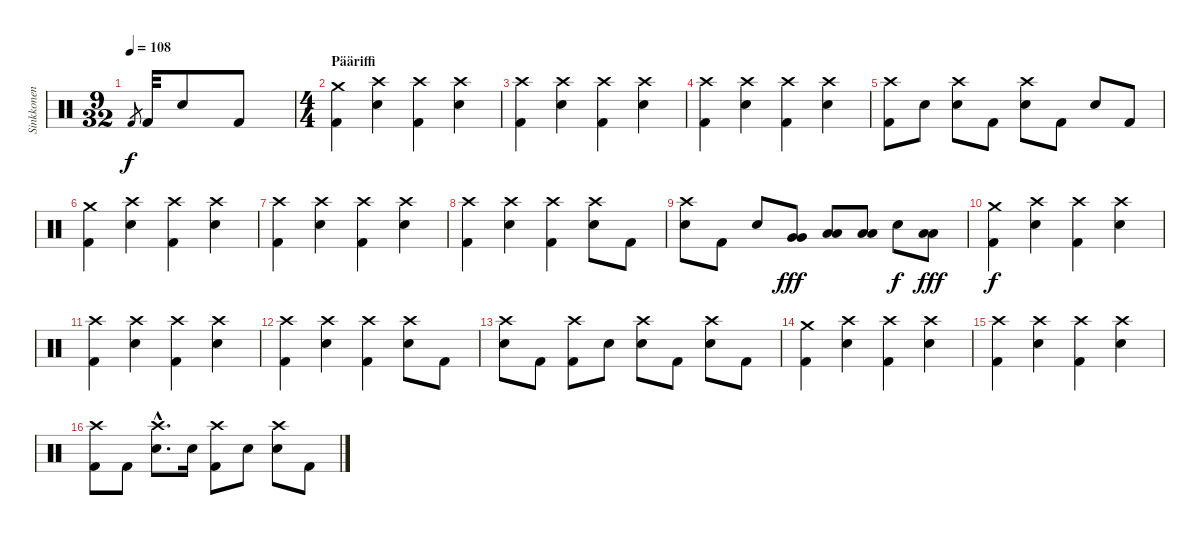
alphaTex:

\track ("Sinkkonen" "Sinkkonen") {instrument percussion}
\staff {score}
\articulation defaults
\ts (9 32)
\tempo 108
\clef neutral
\ks c "Kick (hit) 2".8{gr dy f} "Kick (hit) 2".32 "Snare (hit) 2".8 "Kick (hit) 2".8
|
\ts (4 4)
\section ("" "Pääriffi")
("Kick (hit) 2" "Crash medium (hit)").4 ("Crash high (hit)" "Snare (hit) 2").4 ("Kick (hit) 2" "Crash high (hit)").4 ("Crash high (hit)" "Snare (hit) 2").4 |
("Kick (hit) 2" "Crash high (hit)").4 ("Crash high (hit)" "Snare (hit) 2").4 ("Kick (hit) 2" "Crash high (hit)").4 ("Crash high (hit)" "Snare (hit) 2").4 |
("Kick (hit) 2" "Crash high (hit)").4 ("Crash high (hit)" "Snare (hit) 2").4 ("Kick (hit) 2" "Crash high (hit)").4 ("Crash high (hit)" "Snare (hit) 2").4 |
("Kick (hit) 2" "Crash high (hit)").8 "Snare (hit) 2".8 ("Crash high (hit)" "Snare (hit) 2").8 "Kick (hit) 2".8 ("Crash high (hit)" "Snare (hit) 2").8 "Kick (hit) 2".8 "Snare (hit) 2".8 "Kick (hit) 2".8 |
("Kick (hit) 2" "Crash medium (hit)").4 ("Crash high (hit)" "Snare (hit) 2").4 ("Kick (hit) 2" "Crash high (hit)").4 ("Crash high (hit)" "Snare (hit) 2").4 |
("Kick (hit) 2" "Crash high (hit)").4 ("Crash high (hit)" "Snare (hit) 2").4 ("Kick (hit) 2" "Crash high (hit)").4 ("Crash high (hit)" "Snare (hit) 2").4 |
("Kick (hit) 2" "Crash high (hit)").4 ("Crash high (hit)" "Snare (hit) 2").4 ("Kick (hit) 2" "Crash high (hit)").4 ("Crash high (hit)" "Snare (hit) 2").8 "Kick (hit) 2".8 |
("Crash high (hit)" "Snare (hit) 2").8 "Kick (hit) 2".8 "Snare (hit) 2".8 ("Very Low Tom (hit)" "Very Low Tom (hit)").8{dy fff} ("Low Floor Tom (hit)" "Low Floor Tom (hit)").8 ("Low Floor Tom (hit)" "Low Floor Tom (hit)").8 "Snare (hit) 2".8{dy f} ("Low Floor Tom (hit)" "Low Floor Tom (hit)").8{dy fff} |
("Kick (hit) 2" "Crash medium (hit)").4{dy f} ("Crash high (hit)" "Snare (hit) 2").4 ("Kick (hit) 2" "Crash high (hit)").4 ("Crash high (hit)" "Snare (hit) 2").4 |
("Kick (hit) 2" "Crash high (hit)").4 ("Crash high (hit)" "Snare (hit) 2").4 ("Kick (hit) 2" "Crash high (hit)").4 ("Crash high (hit)" "Snare (hit) 2").4 |
("Kick (hit) 2" "Crash high (hit)").4 ("Crash high (hit)" "Snare (hit) 2").4 ("Kick (hit) 2" "Crash high (hit)").4 ("Crash high (hit)" "Snare (hit) 2").8 "Kick (hit) 2".8 |
("Crash high (hit)" "Snare (hit) 2").8 "Kick (hit) 2".8 ("Kick (hit) 2" "Crash high (hit)").8 "Snare (hit) 2".8 ("Crash high (hit)" "Snare (hit) 2").8 "Kick (hit) 2".8 ("Crash high (hit)" "Snare (hit) 2").8 "Kick (hit) 2".8 |
("Kick (hit) 2" "Crash medium (hit)").4 ("Crash high (hit)" "Snare (hit) 2").4 ("Kick (hit) 2" "Crash high (hit)").4 ("Crash high (hit)" "Snare (hit) 2").4 |
("Kick (hit) 2" "Crash high (hit)").4 ("Crash high (hit)" "Snare (hit) 2").4 ("Kick (hit) 2" "Crash high (hit)").4 ("Crash high (hit)" "Snare (hit) 2").4 |
("Kick (hit) 2" "Crash high (hit)").8 "Kick (hit) 2".8 ("Crash high (hit)"{hac} "Snare (hit) 2"{hac}).8{d} "Snare (hit) 2".16 ("Kick (hit) 2" "Crash high (hit)").8 "Snare (hit) 2".8 ("Crash high (hit)" "Snare (hit) 2").8 "Kick (hit) 2".8
